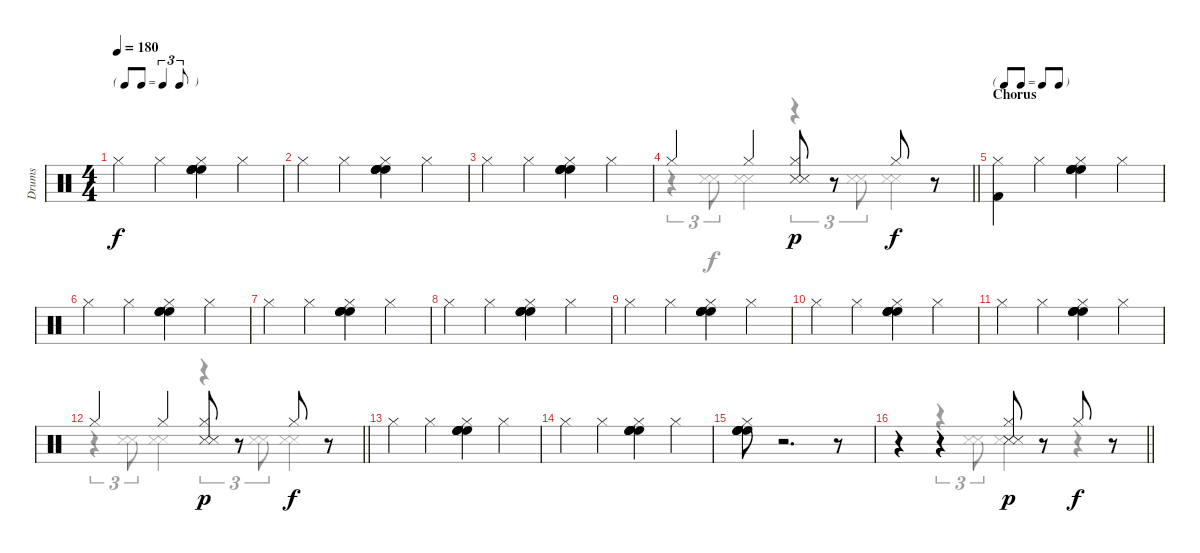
\track ("Drums" "Drums") {instrument percussion}
\staff {score}
\articulation defaults
\voice
\ts (4 4)
\tf triplet8th
\tempo 180
\clef neutral
\ks c "Hi-Hat (closed)".4{dy f} "Hi-Hat (closed)".4
("High Floor Tom (hit)" "High Floor Tom (hit)" "High Floor Tom (hit)" "High Floor Tom (hit)" "Hi-Hat (closed)").4 "Hi-Hat (closed)".4 |
"Hi-Hat (closed)".4 "Hi-Hat (closed)".4 ("High Floor Tom (hit)" "High Floor Tom (hit)" "High Floor Tom (hit)" "High Floor Tom (hit)" "Hi-Hat (closed)").4 "Hi-Hat (closed)".4 |
"Hi-Hat (closed)".4 "Hi-Hat (closed)".4 ("High Floor Tom (hit)" "High Floor Tom (hit)" "High Floor Tom (hit)" "High Floor Tom (hit)" "Hi-Hat (closed)").4 "Hi-Hat (closed)".4 |
\barLineRight lightlight "Hi-Hat (closed)".4 "Hi-Hat (closed)".4
("Snare (side stick) 3" "Snare (side stick) 3" "Hi-Hat (closed)").8{dy p} r.8 "Hi-Hat (closed)".8{dy f} r.8 |
\tf none
\section ("" "Chorus")
("Kick (hit) 2" "Hi-Hat (closed)").4 "Hi-Hat (closed)".4 ("High Floor Tom (hit)" "High Floor Tom (hit)" "High Floor Tom (hit)" "High Floor Tom (hit)" "Hi-Hat (closed)").4 "Hi-Hat (closed)".4 |
"Hi-Hat (closed)".4 "Hi-Hat (closed)".4 ("High Floor Tom (hit)" "High Floor Tom (hit)" "High Floor Tom (hit)" "High Floor Tom (hit)" "Hi-Hat (closed)").4 "Hi-Hat (closed)".4 |
"Hi-Hat (closed)".4 "Hi-Hat (closed)".4 ("High Floor Tom (hit)" "High Floor Tom (hit)" "High Floor Tom (hit)" "High Floor Tom (hit)" "Hi-Hat (closed)").4 "Hi-Hat (closed)".4 |
"Hi-Hat (closed)".4 "Hi-Hat (closed)".4 ("High Floor Tom (hit)" "High Floor Tom (hit)" "High Floor Tom (hit)" "High Floor Tom (hit)" "Hi-Hat (closed)").4 "Hi-Hat (closed)".4 |
"Hi-Hat (closed)".4 "Hi-Hat (closed)".4 ("High Floor Tom (hit)" "High Floor Tom (hit)" "High Floor Tom (hit)" "High Floor Tom (hit)" "Hi-Hat (closed)").4 "Hi-Hat (closed)".4 |
"Hi-Hat (closed)".4 "Hi-Hat (closed)".4 ("High Floor Tom (hit)" "High Floor Tom (hit)" "High Floor Tom (hit)" "High Floor Tom (hit)" "Hi-Hat (closed)").4 "Hi-Hat (closed)".4 |
"Hi-Hat (closed)".4 "Hi-Hat (closed)".4 ("High Floor Tom (hit)" "High Floor Tom (hit)" "High Floor Tom (hit)" "High Floor Tom (hit)" "Hi-Hat (closed)").4 "Hi-Hat (closed)".4 |
\barLineRight lightlight "Hi-Hat (closed)".4 "Hi-Hat (closed)".4
("Snare (side stick) 3" "Snare (side stick) 3" "Hi-Hat (closed)").8{dy p} r.8 "Hi-Hat (closed)".8{dy f} r.8 |
"Hi-Hat (closed)".4 "Hi-Hat (closed)".4 ("High Floor Tom (hit)" "High Floor Tom (hit)" "High Floor Tom (hit)" "High Floor Tom (hit)" "Hi-Hat (closed)").4 "Hi-Hat (closed)".4 |
"Hi-Hat (closed)".4 "Hi-Hat (closed)".4 ("High Floor Tom (hit)" "High Floor Tom (hit)" "High Floor Tom (hit)" "High Floor Tom (hit)" "Hi-Hat (closed)").4 "Hi-Hat (closed)".4 |
("High Floor Tom (hit)" "High Floor Tom (hit)" "High Floor Tom (hit)" "High Floor Tom (hit)" "Hi-Hat (closed)").8 r.2{d} r.8 |
\barLineRight lightlight
r.4 r.4 ("Snare (side stick) 3" "Snare (side stick) 3" "Hi-Hat (closed)").8{dy p} r.8 "Hi-Hat (closed)".8{dy f} r.8
\voice
\clef neutral
\ottava regular
\simile none
\ks c
|
|
|
\barLineRight lightlight
r.4{tu (3 2)} ("Snare (side stick) 3" "Snare (side stick) 3").8{tu (3 2)} ("Snare (side stick) 3" "Snare (side stick) 3").4 r.4{tu (3 2)} ("Snare (side stick) 3" "Snare (side stick) 3").8{tu (3 2)} ("Snare (side stick) 3" "Snare (side stick) 3").4 |
|
|
|
|
|
|
|
\barLineRight lightlight
r.4{tu (3 2)} ("Snare (side stick) 3" "Snare (side stick) 3").8{tu (3 2)} ("Snare (side stick) 3" "Snare (side stick) 3").4 r.4{tu (3 2)} ("Snare (side stick) 3" "Snare (side stick) 3").8{tu (3 2)} ("Snare (side stick) 3" "Snare (side stick) 3").4 |
|
|
|
\barLineRight lightlight
r.4 r.4{tu (3 2)} ("Snare (side stick) 3" "Snare (side stick) 3").8{tu (3 2)} ("Snare (side stick) 3" "Snare (side stick) 3").4 r.4
